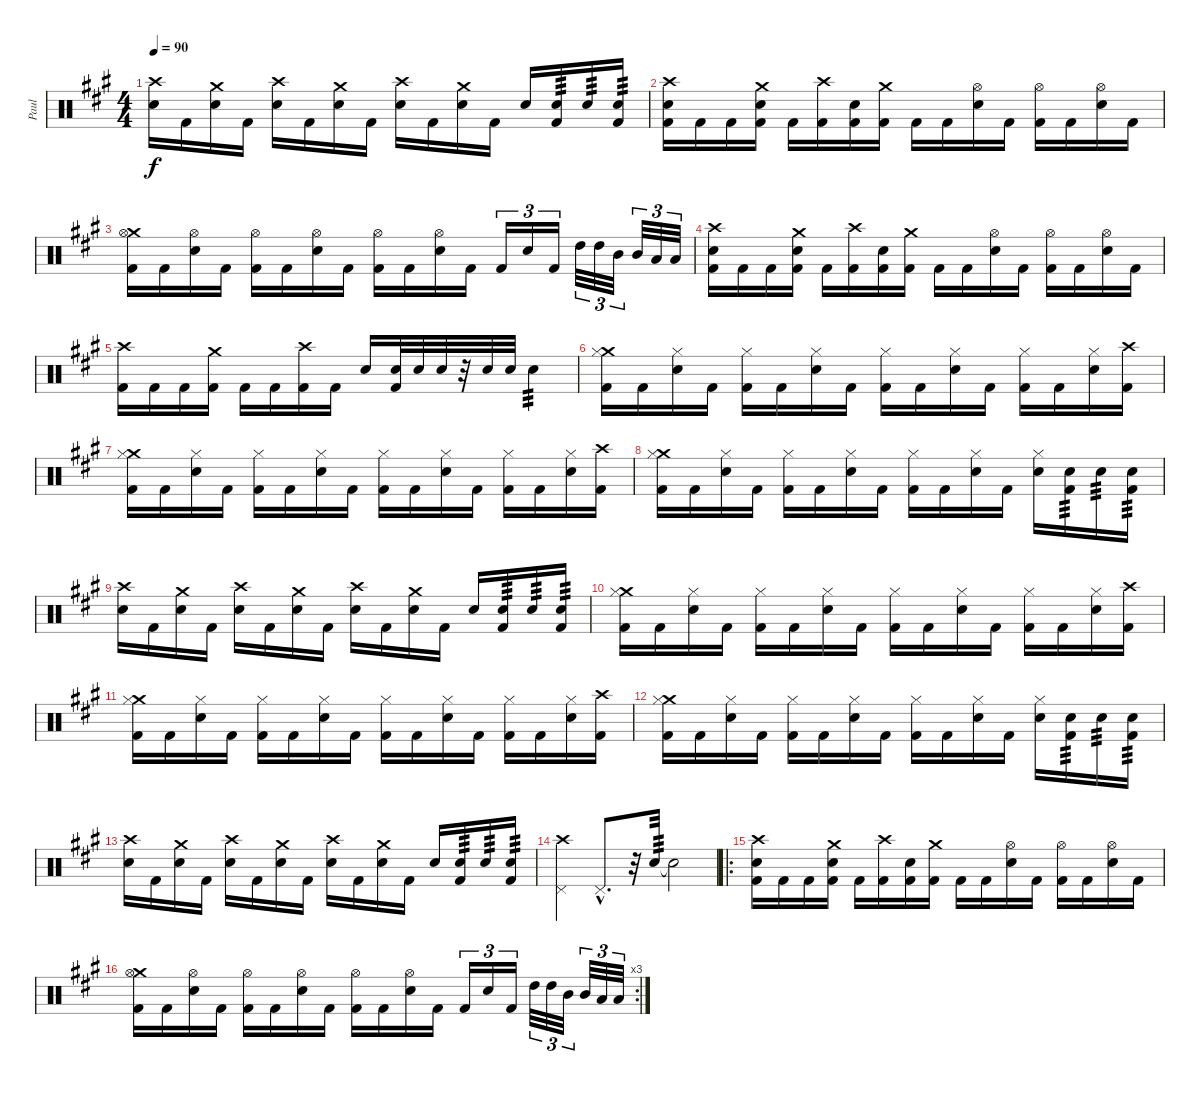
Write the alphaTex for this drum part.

\track ("Paul" "Paul") {instrument percussion}
\staff {score}
\articulation defaults
\ts (4 4)
\tempo 90
\clef neutral
\ks a
("Crash high (hit)" "Snare (hit) 2").16{dy f} "Kick (hit) 2".16 ("Crash medium (hit)" "Snare (hit) 2").16 "Kick (hit) 2".16 ("Crash high (hit)" "Snare (hit) 2").16 "Kick (hit) 2".16 ("Crash medium (hit)" "Snare (hit) 2").16 "Kick (hit) 2".16 ("Crash high (hit)" "Snare (hit) 2").16 "Kick (hit) 2".16 ("Crash medium (hit)" "Snare (hit) 2").16 "Kick (hit) 2".16 "Snare (hit) 2".16 ("Snare (hit) 2" "Kick (hit) 2").16{tp 3} "Snare (hit) 2".16{tp 3} ("Snare (hit) 2" "Kick (hit) 2").16{tp 3} |
("Crash high (hit)" "Snare (hit) 2" "Kick (hit) 2").16 "Kick (hit) 2".16 "Kick (hit) 2".16 ("Crash medium (hit)" "Snare (hit) 2" "Kick (hit) 2").16 "Kick (hit) 2".16 ("Crash high (hit)" "Kick (hit) 2").16 ("Snare (hit) 2" "Kick (hit) 2").16 ("Crash medium (hit)" "Kick (hit) 2").16 "Kick (hit) 2".16 "Kick (hit) 2".16 ("Hi-Hat (open)" "Snare (hit) 2").16 "Kick (hit) 2".16 ("Hi-Hat (open)" "Kick (hit) 2").16 "Kick (hit) 2".16 ("Hi-Hat (open)" "Snare (hit) 2").16 "Kick (hit) 2".16 |
("Crash medium (hit)" "Hi-Hat (open)" "Kick (hit) 2").16 "Kick (hit) 2".16 ("Hi-Hat (open)" "Snare (hit) 2").16 "Kick (hit) 2".16 ("Hi-Hat (open)" "Kick (hit) 2").16 "Kick (hit) 2".16 ("Hi-Hat (open)" "Snare (hit) 2").16 "Kick (hit) 2".16 ("Hi-Hat (open)" "Kick (hit) 2").16 "Kick (hit) 2".16 ("Hi-Hat (open)" "Snare (hit) 2").16 "Kick (hit) 2".16 "Kick (hit) 2".16{tu (3 2)} "Snare (hit) 2".16{tu (3 2)} "Kick (hit) 2".16{tu (3 2)} "High Tom (hit)".32{tu (3 2)} "High Tom (hit)".32{tu (3 2)} "Mid Tom (hit)".32{tu (3 2)} "Mid Tom (hit)".32{tu (3 2)} "Low Tom (hit)".32{tu (3 2)} "Low Tom (hit)".32{tu (3 2)} |
("Crash high (hit)" "Snare (hit) 2" "Kick (hit) 2").16 "Kick (hit) 2".16 "Kick (hit) 2".16 ("Crash medium (hit)" "Snare (hit) 2" "Kick (hit) 2").16 "Kick (hit) 2".16 ("Crash high (hit)" "Kick (hit) 2").16 ("Snare (hit) 2" "Kick (hit) 2").16 ("Crash medium (hit)" "Kick (hit) 2").16 "Kick (hit) 2".16 "Kick (hit) 2".16 ("Hi-Hat (open)" "Snare (hit) 2").16 "Kick (hit) 2".16 ("Hi-Hat (open)" "Kick (hit) 2").16 "Kick (hit) 2".16 ("Hi-Hat (open)" "Snare (hit) 2").16 "Kick (hit) 2".16 |
("Crash high (hit)" "Kick (hit) 2").16 "Kick (hit) 2".16 "Kick (hit) 2".16 ("Crash medium (hit)" "Kick (hit) 2").16 "Kick (hit) 2".16 "Kick (hit) 2".16 ("Crash high (hit)" "Kick (hit) 2").16 "Kick (hit) 2".16 "Snare (hit) 2".16 ("Snare (hit) 2" "Kick (hit) 2").32 "Snare (hit) 2".32 "Snare (hit) 2".32 r.32 "Snare (hit) 2".32 "Snare (hit) 2".32 "Snare (hit) 2".4{tp 3} |
("Crash medium (hit)" "Hi-Hat (closed)" "Kick (hit) 2").16 "Kick (hit) 2".16 ("Hi-Hat (closed)" "Snare (hit) 2").16 "Kick (hit) 2".16 ("Hi-Hat (closed)" "Kick (hit) 2").16 "Kick (hit) 2".16 ("Hi-Hat (closed)" "Snare (hit) 2").16 "Kick (hit) 2".16 ("Hi-Hat (closed)" "Kick (hit) 2").16 "Kick (hit) 2".16 ("Hi-Hat (closed)" "Snare (hit) 2").16 "Kick (hit) 2".16 ("Hi-Hat (closed)" "Kick (hit) 2").16 "Kick (hit) 2".16 ("Hi-Hat (closed)" "Snare (hit) 2").16 ("Crash high (hit)" "Kick (hit) 2").16 |
("Crash medium (hit)" "Hi-Hat (closed)" "Kick (hit) 2").16 "Kick (hit) 2".16 ("Hi-Hat (closed)" "Snare (hit) 2").16 "Kick (hit) 2".16 ("Hi-Hat (closed)" "Kick (hit) 2").16 "Kick (hit) 2".16 ("Hi-Hat (closed)" "Snare (hit) 2").16 "Kick (hit) 2".16 ("Hi-Hat (closed)" "Kick (hit) 2").16 "Kick (hit) 2".16 ("Hi-Hat (closed)" "Snare (hit) 2").16 "Kick (hit) 2".16 ("Hi-Hat (closed)" "Kick (hit) 2").16 "Kick (hit) 2".16 ("Hi-Hat (closed)" "Snare (hit) 2").16 ("Crash high (hit)" "Kick (hit) 2").16 |
("Crash medium (hit)" "Hi-Hat (closed)" "Kick (hit) 2").16 "Kick (hit) 2".16 ("Hi-Hat (closed)" "Snare (hit) 2").16 "Kick (hit) 2".16 ("Hi-Hat (closed)" "Kick (hit) 2").16 "Kick (hit) 2".16 ("Hi-Hat (closed)" "Snare (hit) 2").16 "Kick (hit) 2".16 ("Hi-Hat (closed)" "Kick (hit) 2").16 "Kick (hit) 2".16 ("Hi-Hat (closed)" "Snare (hit) 2").16 "Kick (hit) 2".16 ("Hi-Hat (closed)" "Snare (hit) 2").16 ("Snare (hit) 2" "Kick (hit) 2").16{tp 3} "Snare (hit) 2".16{tp 3} ("Snare (hit) 2" "Kick (hit) 2").16{tp 3} |
("Crash high (hit)" "Snare (hit) 2").16 "Kick (hit) 2".16 ("Crash medium (hit)" "Snare (hit) 2").16 "Kick (hit) 2".16 ("Crash high (hit)" "Snare (hit) 2").16 "Kick (hit) 2".16 ("Crash medium (hit)" "Snare (hit) 2").16 "Kick (hit) 2".16 ("Crash high (hit)" "Snare (hit) 2").16 "Kick (hit) 2".16 ("Crash medium (hit)" "Snare (hit) 2").16 "Kick (hit) 2".16 "Snare (hit) 2".16 ("Snare (hit) 2" "Kick (hit) 2").16{tp 3} "Snare (hit) 2".16{tp 3} ("Snare (hit) 2" "Kick (hit) 2").16{tp 3} |
("Crash medium (hit)" "Hi-Hat (closed)" "Kick (hit) 2").16 "Kick (hit) 2".16 ("Hi-Hat (closed)" "Snare (hit) 2").16 "Kick (hit) 2".16 ("Hi-Hat (closed)" "Kick (hit) 2").16 "Kick (hit) 2".16 ("Hi-Hat (closed)" "Snare (hit) 2").16 "Kick (hit) 2".16 ("Hi-Hat (closed)" "Kick (hit) 2").16 "Kick (hit) 2".16 ("Hi-Hat (closed)" "Snare (hit) 2").16 "Kick (hit) 2".16 ("Hi-Hat (closed)" "Kick (hit) 2").16 "Kick (hit) 2".16 ("Hi-Hat (closed)" "Snare (hit) 2").16 ("Crash high (hit)" "Kick (hit) 2").16 |
("Crash medium (hit)" "Hi-Hat (closed)" "Kick (hit) 2").16 "Kick (hit) 2".16 ("Hi-Hat (closed)" "Snare (hit) 2").16 "Kick (hit) 2".16 ("Hi-Hat (closed)" "Kick (hit) 2").16 "Kick (hit) 2".16 ("Hi-Hat (closed)" "Snare (hit) 2").16 "Kick (hit) 2".16 ("Hi-Hat (closed)" "Kick (hit) 2").16 "Kick (hit) 2".16 ("Hi-Hat (closed)" "Snare (hit) 2").16 "Kick (hit) 2".16 ("Hi-Hat (closed)" "Kick (hit) 2").16 "Kick (hit) 2".16 ("Hi-Hat (closed)" "Snare (hit) 2").16 ("Crash high (hit)" "Kick (hit) 2").16 |
("Crash medium (hit)" "Hi-Hat (closed)" "Kick (hit) 2").16 "Kick (hit) 2".16 ("Hi-Hat (closed)" "Snare (hit) 2").16 "Kick (hit) 2".16 ("Hi-Hat (closed)" "Kick (hit) 2").16 "Kick (hit) 2".16 ("Hi-Hat (closed)" "Snare (hit) 2").16 "Kick (hit) 2".16 ("Hi-Hat (closed)" "Kick (hit) 2").16 "Kick (hit) 2".16 ("Hi-Hat (closed)" "Snare (hit) 2").16 "Kick (hit) 2".16 ("Hi-Hat (closed)" "Snare (hit) 2").16 ("Snare (hit) 2" "Kick (hit) 2").16{tp 3} "Snare (hit) 2".16{tp 3} ("Snare (hit) 2" "Kick (hit) 2").16{tp 3} |
("Crash high (hit)" "Snare (hit) 2").16 "Kick (hit) 2".16 ("Crash medium (hit)" "Snare (hit) 2").16 "Kick (hit) 2".16 ("Crash high (hit)" "Snare (hit) 2").16 "Kick (hit) 2".16 ("Crash medium (hit)" "Snare (hit) 2").16 "Kick (hit) 2".16 ("Crash high (hit)" "Snare (hit) 2").16 "Kick (hit) 2".16 ("Crash medium (hit)" "Snare (hit) 2").16 "Kick (hit) 2".16 "Snare (hit) 2".16 ("Snare (hit) 2" "Kick (hit) 2").16{tp 3} "Snare (hit) 2".16{tp 3} ("Snare (hit) 2" "Kick (hit) 2").16{tp 3} |
("Crash high (hit)" "Pedal Hi-Hat (hit)").4 "Pedal Hi-Hat (hit)"{hac}.8{d} r.32 "Snare (hit) 2".32{tp 3} "Snare (hit) 2"{t}.2 |
\ro
("Crash high (hit)" "Snare (hit) 2" "Kick (hit) 2").16 "Kick (hit) 2".16 "Kick (hit) 2".16 ("Crash medium (hit)" "Snare (hit) 2" "Kick (hit) 2").16 "Kick (hit) 2".16 ("Crash high (hit)" "Kick (hit) 2").16 ("Snare (hit) 2" "Kick (hit) 2").16 ("Crash medium (hit)" "Kick (hit) 2").16 "Kick (hit) 2".16 "Kick (hit) 2".16 ("Hi-Hat (open)" "Snare (hit) 2").16 "Kick (hit) 2".16 ("Hi-Hat (open)" "Kick (hit) 2").16 "Kick (hit) 2".16 ("Hi-Hat (open)" "Snare (hit) 2").16 "Kick (hit) 2".16 |
\rc 3
("Crash medium (hit)" "Hi-Hat (open)" "Kick (hit) 2").16 "Kick (hit) 2".16 ("Hi-Hat (open)" "Snare (hit) 2").16 "Kick (hit) 2".16 ("Hi-Hat (open)" "Kick (hit) 2").16 "Kick (hit) 2".16 ("Hi-Hat (open)" "Snare (hit) 2").16 "Kick (hit) 2".16 ("Hi-Hat (open)" "Kick (hit) 2").16 "Kick (hit) 2".16 ("Hi-Hat (open)" "Snare (hit) 2").16 "Kick (hit) 2".16 "Kick (hit) 2".16{tu (3 2)} "Snare (hit) 2".16{tu (3 2)} "Kick (hit) 2".16{tu (3 2)} "High Tom (hit)".32{tu (3 2)} "High Tom (hit)".32{tu (3 2)} "Mid Tom (hit)".32{tu (3 2)} "Mid Tom (hit)".32{tu (3 2)} "Low Tom (hit)".32{tu (3 2)} "Low Tom (hit)".32{tu (3 2)}
